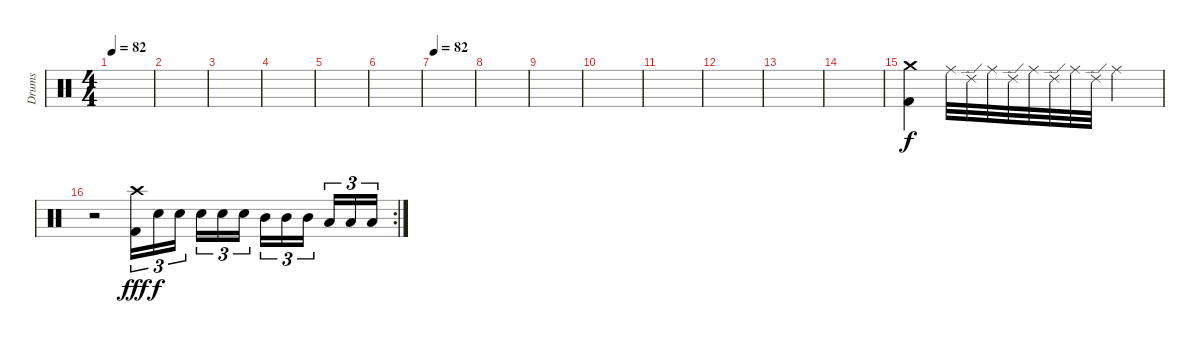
\track ("Drums" "Drums") {instrument percussion}
\staff {score}
\articulation defaults
\ts (4 4)
\tempo 82
\clef neutral
\ks c
|
|
|
|
|
|
\tempo 82
|
|
|
|
|
|
|
|
("Crash medium (hit)" "Kick (hit) 2").4 "Ride (middle)".32{dy f} "Ride (edge) 2".32 "Ride (middle)".32 "Ride (edge) 2".32 "Ride (middle)".32 "Ride (edge) 2".32 "Ride (middle)".32 "Ride (edge) 2".32 "Ride (middle)".2 |
\rc 2
r.2 ("Crash high (hit)" "Kick (hit) 2").16{tu (3 2) dy fff} "Snare (hit) 2".16{tu (3 2) dy f} "Snare (hit) 2".16{tu (3 2)} "Snare (hit) 2".16{tu (3 2)} "Snare (hit) 2".16{tu (3 2)} "Snare (hit) 2".16{tu (3 2)} "Mid Tom (hit)".16{tu (3 2)} "Mid Tom (hit)".16{tu (3 2)} "Mid Tom (hit)".16{tu (3 2)} "Low Tom (hit)".16{tu (3 2)} "Low Tom (hit)".16{tu (3 2)} "Low Tom (hit)".16{tu (3 2)}
